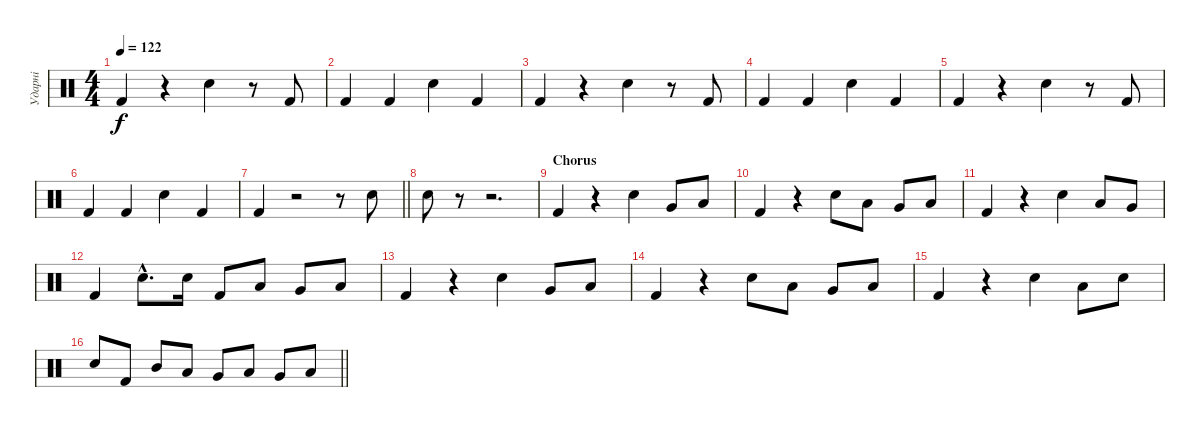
\track ("Ударні" "Ударні") {instrument percussion}
\staff {score}
\articulation defaults
\ts (4 4)
\tempo 122
\clef neutral
\ks c "Kick (hit) 2".4{dy f}
r.4 "Snare (hit) 2".4 r.8 "Kick (hit) 2".8 |
"Kick (hit) 2".4 "Kick (hit) 2".4 "Snare (hit) 2".4 "Kick (hit) 2".4 |
"Kick (hit) 2".4 r.4 "Snare (hit) 2".4 r.8 "Kick (hit) 2".8 |
"Kick (hit) 2".4 "Kick (hit) 2".4 "Snare (hit) 2".4 "Kick (hit) 2".4 |
"Kick (hit) 2".4 r.4 "Snare (hit) 2".4 r.8 "Kick (hit) 2".8 |
"Kick (hit) 2".4 "Kick (hit) 2".4 "Snare (hit) 2".4 "Kick (hit) 2".4 |
\barLineRight lightlight "Kick (hit) 2".4
r.2 r.8 "Snare (hit) 2".8 |
"Snare (hit) 2".8 r.8 r.2{d} |
\section ("" "Chorus")
"Kick (hit) 2".4 r.4 "Snare (hit) 2".4 "Very Low Tom (hit)".8 "Low Floor Tom (hit)".8 |
"Kick (hit) 2".4 r.4 "Snare (hit) 2".8 "Low Tom (hit)".8 "Very Low Tom (hit)".8 "Low Floor Tom (hit)".8 |
"Kick (hit) 2".4 r.4 "Snare (hit) 2".4 "Low Tom (hit)".8 "Very Low Tom (hit)".8 |
"Kick (hit) 2".4 "Snare (hit) 2"{hac}.8{d} "Snare (hit) 2".16 "Kick (hit) 2".8 "Low Tom (hit)".8 "Very Low Tom (hit)".8 "Low Floor Tom (hit)".8 |
"Kick (hit) 2".4 r.4 "Snare (hit) 2".4 "Very Low Tom (hit)".8 "Low Floor Tom (hit)".8 |
"Kick (hit) 2".4 r.4 "Snare (hit) 2".8 "Low Tom (hit)".8 "Very Low Tom (hit)".8 "Low Floor Tom (hit)".8 |
"Kick (hit) 2".4 r.4 "Snare (hit) 2".4 "Low Tom (hit)".8 "Snare (hit) 2".8 |
\barLineRight lightlight "Snare (hit) 2".8 "Kick (hit) 2".8 "Mid Tom (hit)".8 "Low Tom (hit)".8 "Very Low Tom (hit)".8 "Low Floor Tom (hit)".8 "Very Low Tom (hit)".8 "Low Floor Tom (hit)".8
